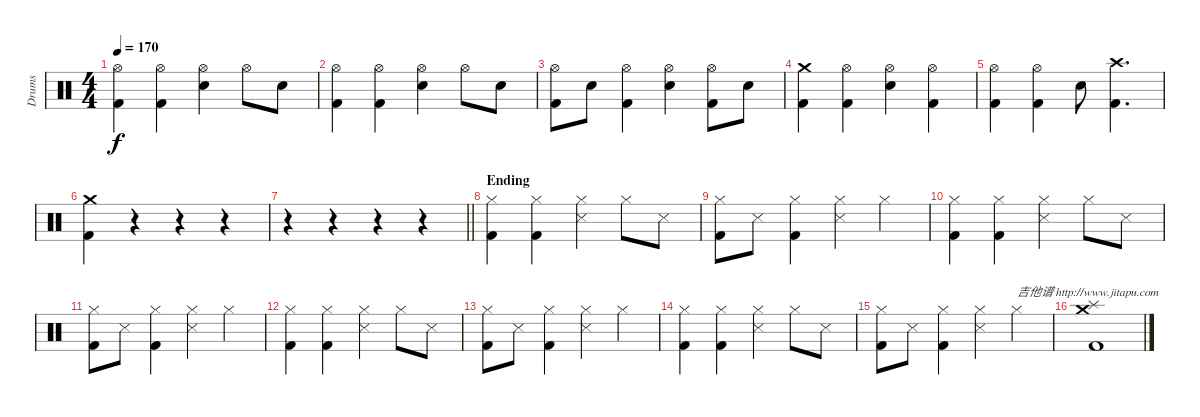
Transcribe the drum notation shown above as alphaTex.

\track ("Drums" "Drums") {instrument percussion}
\staff {score}
\articulation defaults
\ts (4 4)
\tempo 170
\clef neutral
\ks c
("Hi-Hat (open)" "Kick (hit) 2").4{dy f} ("Hi-Hat (open)" "Kick (hit) 2").4 ("Hi-Hat (open)" "Electric Snare (hit)").4 "Hi-Hat (open)".8 "Electric Snare (hit)".8 |
("Hi-Hat (open)" "Kick (hit) 2").4 ("Hi-Hat (open)" "Kick (hit) 2").4 ("Hi-Hat (open)" "Electric Snare (hit)").4 "Hi-Hat (open)".8 "Electric Snare (hit)".8 |
("Hi-Hat (open)" "Kick (hit) 2").8 "Electric Snare (hit)".8 ("Hi-Hat (open)" "Kick (hit) 2").4 ("Hi-Hat (open)" "Electric Snare (hit)").4 ("Hi-Hat (open)" "Kick (hit) 2").8 "Electric Snare (hit)".8 |
("Crash medium (hit)" "Kick (hit) 2").4 ("Hi-Hat (open)" "Kick (hit) 2").4 ("Hi-Hat (open)" "Electric Snare (hit)").4 ("Hi-Hat (open)" "Kick (hit) 2").4 |
("Hi-Hat (open)" "Kick (hit) 2").4 ("Hi-Hat (open)" "Kick (hit) 2").4 "Electric Snare (hit)".8 ("Crash high (hit)" "Kick (hit) 2").4{d} |
("Crash medium (hit)" "Kick (hit) 2").4 r.4 r.4 r.4 |
\barLineRight lightlight
r.4 r.4 r.4 r.4 |
\section ("" "Ending")
("Hi-Hat (closed)" "Kick (hit) 2").4 ("Hi-Hat (closed)" "Kick (hit) 2").4 ("Hi-Hat (closed)" "Snare (side stick) 3").4 "Hi-Hat (closed)".8 "Snare (side stick) 3".8 |
("Hi-Hat (closed)" "Kick (hit) 2").8 "Snare (side stick) 3".8 ("Hi-Hat (closed)" "Kick (hit) 2").4 ("Hi-Hat (closed)" "Snare (side stick) 3").4 "Hi-Hat (closed)".4 |
("Hi-Hat (closed)" "Kick (hit) 2").4 ("Hi-Hat (closed)" "Kick (hit) 2").4 ("Hi-Hat (closed)" "Snare (side stick) 3").4 "Hi-Hat (closed)".8 "Snare (side stick) 3".8 |
("Hi-Hat (closed)" "Kick (hit) 2").8 "Snare (side stick) 3".8 ("Hi-Hat (closed)" "Kick (hit) 2").4 ("Hi-Hat (closed)" "Snare (side stick) 3").4 "Hi-Hat (closed)".4 |
("Hi-Hat (closed)" "Kick (hit) 2").4 ("Hi-Hat (closed)" "Kick (hit) 2").4 ("Hi-Hat (closed)" "Snare (side stick) 3").4 "Hi-Hat (closed)".8 "Snare (side stick) 3".8 |
("Hi-Hat (closed)" "Kick (hit) 2").8 "Snare (side stick) 3".8 ("Hi-Hat (closed)" "Kick (hit) 2").4 ("Hi-Hat (closed)" "Snare (side stick) 3").4 "Hi-Hat (closed)".4 |
("Hi-Hat (closed)" "Kick (hit) 2").4 ("Hi-Hat (closed)" "Kick (hit) 2").4 ("Hi-Hat (closed)" "Snare (side stick) 3").4 "Hi-Hat (closed)".8 "Snare (side stick) 3".8 |
("Hi-Hat (closed)" "Kick (hit) 2").8 "Snare (side stick) 3".8 ("Hi-Hat (closed)" "Kick (hit) 2").4 ("Hi-Hat (closed)" "Snare (side stick) 3").4 "Hi-Hat (closed)".4{txt "吉他谱 http://www.jitapu.com"} |
("Crash medium (hit)" "Splash (hit)" "Kick (hit) 2").1
